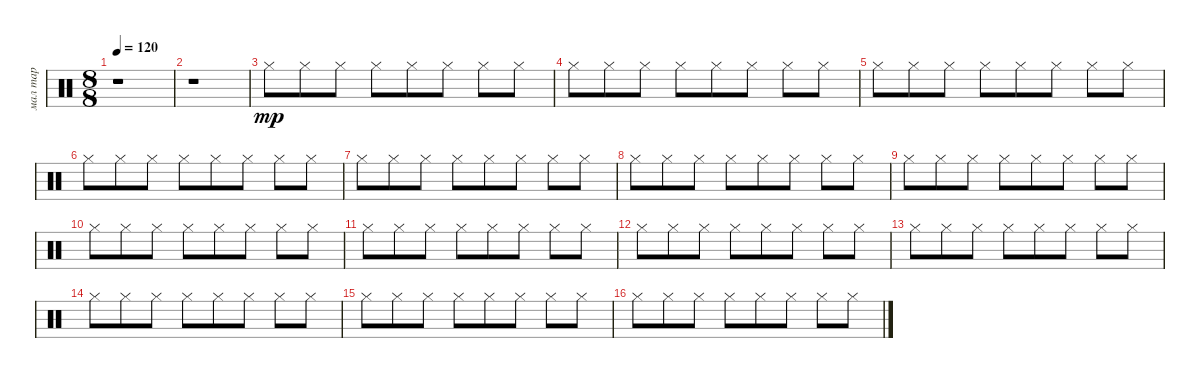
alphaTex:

\track ("мал тар" "мал тар") {instrument percussion}
\staff {score}
\articulation defaults
\ts (8 8)
\tempo 120
\clef neutral
\ks c
r.1{dy mp} |
r.1 |
"Hi-Hat (closed)".8 "Hi-Hat (closed)".8 "Hi-Hat (closed)".8 "Hi-Hat (closed)".8 "Hi-Hat (closed)".8 "Hi-Hat (closed)".8 "Hi-Hat (closed)".8 "Hi-Hat (closed)".8 |
"Hi-Hat (closed)".8 "Hi-Hat (closed)".8 "Hi-Hat (closed)".8 "Hi-Hat (closed)".8 "Hi-Hat (closed)".8 "Hi-Hat (closed)".8 "Hi-Hat (closed)".8 "Hi-Hat (closed)".8 |
"Hi-Hat (closed)".8 "Hi-Hat (closed)".8 "Hi-Hat (closed)".8 "Hi-Hat (closed)".8 "Hi-Hat (closed)".8 "Hi-Hat (closed)".8 "Hi-Hat (closed)".8 "Hi-Hat (closed)".8 |
"Hi-Hat (closed)".8 "Hi-Hat (closed)".8 "Hi-Hat (closed)".8 "Hi-Hat (closed)".8 "Hi-Hat (closed)".8 "Hi-Hat (closed)".8 "Hi-Hat (closed)".8 "Hi-Hat (closed)".8 |
"Hi-Hat (closed)".8 "Hi-Hat (closed)".8 "Hi-Hat (closed)".8 "Hi-Hat (closed)".8 "Hi-Hat (closed)".8 "Hi-Hat (closed)".8 "Hi-Hat (closed)".8 "Hi-Hat (closed)".8 |
"Hi-Hat (closed)".8 "Hi-Hat (closed)".8 "Hi-Hat (closed)".8 "Hi-Hat (closed)".8 "Hi-Hat (closed)".8 "Hi-Hat (closed)".8 "Hi-Hat (closed)".8 "Hi-Hat (closed)".8 |
"Hi-Hat (closed)".8 "Hi-Hat (closed)".8 "Hi-Hat (closed)".8 "Hi-Hat (closed)".8 "Hi-Hat (closed)".8 "Hi-Hat (closed)".8 "Hi-Hat (closed)".8 "Hi-Hat (closed)".8 |
"Hi-Hat (closed)".8 "Hi-Hat (closed)".8 "Hi-Hat (closed)".8 "Hi-Hat (closed)".8 "Hi-Hat (closed)".8 "Hi-Hat (closed)".8 "Hi-Hat (closed)".8 "Hi-Hat (closed)".8 |
"Hi-Hat (closed)".8 "Hi-Hat (closed)".8 "Hi-Hat (closed)".8 "Hi-Hat (closed)".8 "Hi-Hat (closed)".8 "Hi-Hat (closed)".8 "Hi-Hat (closed)".8 "Hi-Hat (closed)".8 |
"Hi-Hat (closed)".8 "Hi-Hat (closed)".8 "Hi-Hat (closed)".8 "Hi-Hat (closed)".8 "Hi-Hat (closed)".8 "Hi-Hat (closed)".8 "Hi-Hat (closed)".8 "Hi-Hat (closed)".8 |
"Hi-Hat (closed)".8 "Hi-Hat (closed)".8 "Hi-Hat (closed)".8 "Hi-Hat (closed)".8 "Hi-Hat (closed)".8 "Hi-Hat (closed)".8 "Hi-Hat (closed)".8 "Hi-Hat (closed)".8 |
"Hi-Hat (closed)".8 "Hi-Hat (closed)".8 "Hi-Hat (closed)".8 "Hi-Hat (closed)".8 "Hi-Hat (closed)".8 "Hi-Hat (closed)".8 "Hi-Hat (closed)".8 "Hi-Hat (closed)".8 |
"Hi-Hat (closed)".8 "Hi-Hat (closed)".8 "Hi-Hat (closed)".8 "Hi-Hat (closed)".8 "Hi-Hat (closed)".8 "Hi-Hat (closed)".8 "Hi-Hat (closed)".8 "Hi-Hat (closed)".8 |
"Hi-Hat (closed)".8 "Hi-Hat (closed)".8 "Hi-Hat (closed)".8 "Hi-Hat (closed)".8 "Hi-Hat (closed)".8 "Hi-Hat (closed)".8 "Hi-Hat (closed)".8 "Hi-Hat (closed)".8
